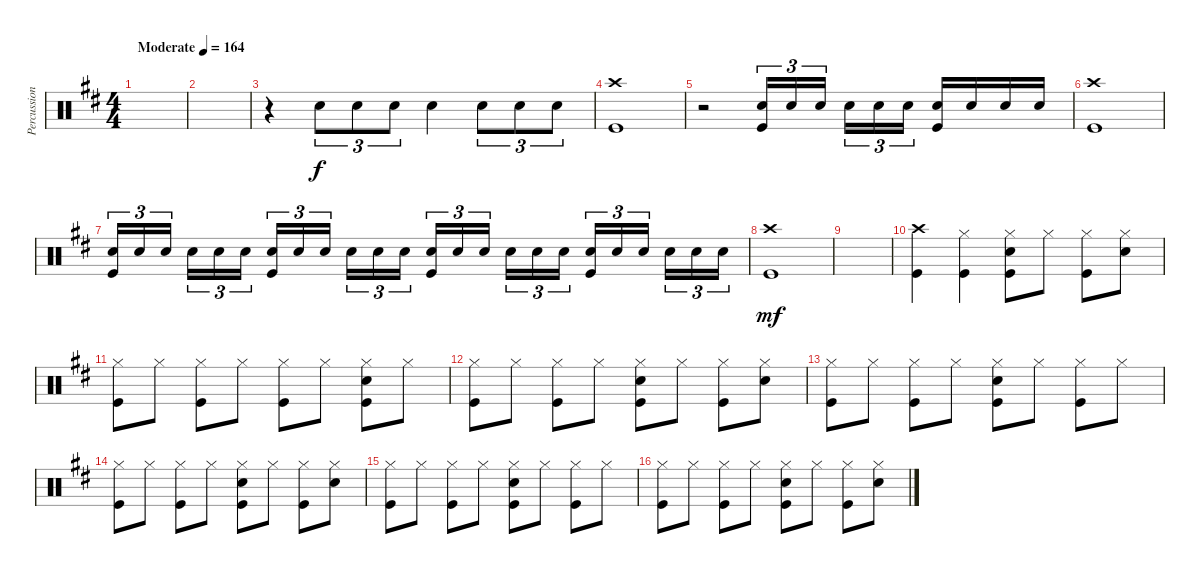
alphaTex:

\track ("Percussions" "Percussion") {instrument percussion}
\staff {score}
\articulation defaults
\ts (4 4)
\tempo (164 "Moderate")
\clef neutral
\ks bminor
|
|
r.4 "Electric Snare (hit)".8{tu (3 2)} "Electric Snare (hit)".8{tu (3 2)} "Electric Snare (hit)".8{tu (3 2)} "Electric Snare (hit)".4 "Electric Snare (hit)".8{tu (3 2)} "Electric Snare (hit)".8{tu (3 2)} "Electric Snare (hit)".8{tu (3 2)} |
("Crash high (hit)" "Kick (hit)").1 |
r.2 ("Electric Snare (hit)" "Kick (hit)").16{tu (3 2)} "Electric Snare (hit)".16{tu (3 2)} "Electric Snare (hit)".16{tu (3 2) beam splitsecondary} "Electric Snare (hit)".16{tu (3 2)} "Electric Snare (hit)".16{tu (3 2)} "Electric Snare (hit)".16{tu (3 2)} ("Electric Snare (hit)" "Kick (hit)").16 "Electric Snare (hit)".16 "Electric Snare (hit)".16 "Electric Snare (hit)".16 |
("Crash high (hit)" "Kick (hit)").1 |
("Electric Snare (hit)" "Kick (hit)").16{tu (3 2)} "Electric Snare (hit)".16{tu (3 2)} "Electric Snare (hit)".16{tu (3 2) beam splitsecondary} "Electric Snare (hit)".16{tu (3 2)} "Electric Snare (hit)".16{tu (3 2)} "Electric Snare (hit)".16{tu (3 2)} ("Electric Snare (hit)" "Kick (hit)").16{tu (3 2)} "Electric Snare (hit)".16{tu (3 2)} "Electric Snare (hit)".16{tu (3 2) beam splitsecondary} "Electric Snare (hit)".16{tu (3 2)} "Electric Snare (hit)".16{tu (3 2)} "Electric Snare (hit)".16{tu (3 2)} ("Electric Snare (hit)" "Kick (hit)").16{tu (3 2)} "Electric Snare (hit)".16{tu (3 2)} "Electric Snare (hit)".16{tu (3 2) beam splitsecondary} "Electric Snare (hit)".16{tu (3 2)} "Electric Snare (hit)".16{tu (3 2)} "Electric Snare (hit)".16{tu (3 2)} ("Electric Snare (hit)" "Kick (hit)").16{tu (3 2)} "Electric Snare (hit)".16{tu (3 2)} "Electric Snare (hit)".16{tu (3 2) beam splitsecondary} "Electric Snare (hit)".16{tu (3 2)} "Electric Snare (hit)".16{tu (3 2)} "Electric Snare (hit)".16{tu (3 2)} |
("Crash high (hit)" "Kick (hit)").1{dy mf} |
|
("Crash high (hit)" "Kick (hit)").4 ("Hi-Hat (closed)" "Kick (hit)").4 ("Hi-Hat (closed)" "Electric Snare (hit)" "Kick (hit)").8 "Hi-Hat (closed)".8 ("Hi-Hat (closed)" "Kick (hit)").8 ("Hi-Hat (closed)" "Electric Snare (hit)").8 |
("Hi-Hat (closed)" "Kick (hit)").8 "Hi-Hat (closed)".8 ("Hi-Hat (closed)" "Kick (hit)").8 "Hi-Hat (closed)".8 ("Hi-Hat (closed)" "Kick (hit)").8 "Hi-Hat (closed)".8 ("Hi-Hat (closed)" "Electric Snare (hit)" "Kick (hit)").8 "Hi-Hat (closed)".8 |
("Hi-Hat (closed)" "Kick (hit)").8 "Hi-Hat (closed)".8 ("Hi-Hat (closed)" "Kick (hit)").8 "Hi-Hat (closed)".8 ("Hi-Hat (closed)" "Electric Snare (hit)" "Kick (hit)").8 "Hi-Hat (closed)".8 ("Hi-Hat (closed)" "Kick (hit)").8 ("Hi-Hat (closed)" "Electric Snare (hit)").8 |
("Hi-Hat (closed)" "Kick (hit)").8 "Hi-Hat (closed)".8 ("Hi-Hat (closed)" "Kick (hit)").8 "Hi-Hat (closed)".8 ("Hi-Hat (closed)" "Electric Snare (hit)" "Kick (hit)").8 "Hi-Hat (closed)".8 ("Hi-Hat (closed)" "Kick (hit)").8 "Hi-Hat (closed)".8 |
("Hi-Hat (closed)" "Kick (hit)").8 "Hi-Hat (closed)".8 ("Hi-Hat (closed)" "Kick (hit)").8 "Hi-Hat (closed)".8 ("Hi-Hat (closed)" "Electric Snare (hit)" "Kick (hit)").8 "Hi-Hat (closed)".8 ("Hi-Hat (closed)" "Kick (hit)").8 ("Hi-Hat (closed)" "Electric Snare (hit)").8 |
("Hi-Hat (closed)" "Kick (hit)").8 "Hi-Hat (closed)".8 ("Hi-Hat (closed)" "Kick (hit)").8 "Hi-Hat (closed)".8 ("Hi-Hat (closed)" "Electric Snare (hit)" "Kick (hit)").8 "Hi-Hat (closed)".8 ("Hi-Hat (closed)" "Kick (hit)").8 "Hi-Hat (closed)".8 |
("Hi-Hat (closed)" "Kick (hit)").8 "Hi-Hat (closed)".8 ("Hi-Hat (closed)" "Kick (hit)").8 "Hi-Hat (closed)".8 ("Hi-Hat (closed)" "Electric Snare (hit)" "Kick (hit)").8 "Hi-Hat (closed)".8 ("Hi-Hat (closed)" "Kick (hit)").8 ("Hi-Hat (closed)" "Electric Snare (hit)").8
